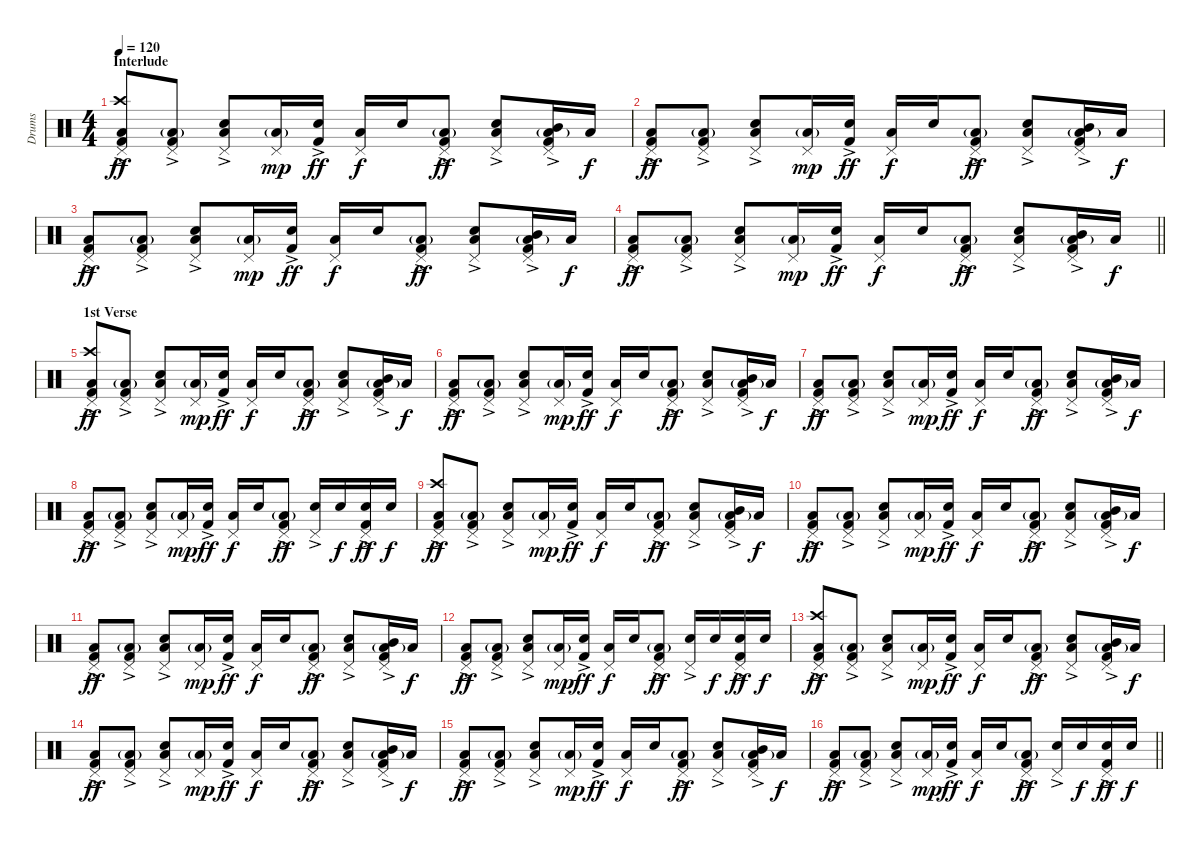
\track ("Drums" "Drums") {instrument percussion}
\staff {score}
\articulation defaults
\ts (4 4)
\section ("" "Interlude")
\tempo 120
\clef neutral
\ks c
("Pedal Hi-Hat (hit)" "Crash high (hit)" "Low Floor Tom (hit)" "Kick (hit) 2"{ac}).8{dy ff} ("Pedal Hi-Hat (hit)" "Low Floor Tom (hit)"{g} "Kick (hit) 2"{ac}).8 ("Pedal Hi-Hat (hit)" "Snare (hit) 2"{ac} "Low Floor Tom (hit)").8 ("Pedal Hi-Hat (hit)" "Low Floor Tom (hit)"{g}).16{dy mp} ("Snare (hit) 2" "Kick (hit) 2"{ac}).16{dy ff} ("Pedal Hi-Hat (hit)" "Low Floor Tom (hit)").16{dy f} "Snare (hit) 2".16 ("Pedal Hi-Hat (hit)" "Low Floor Tom (hit)"{g} "Kick (hit) 2"{ac}).8{dy ff} ("Pedal Hi-Hat (hit)" "Snare (hit) 2"{ac} "Low Floor Tom (hit)").8 ("Pedal Hi-Hat (hit)" "Mid Tom (hit)" "Low Floor Tom (hit)"{g} "Kick (hit) 2"{ac}).16 "Low Tom (hit)".16{dy f} |
("Pedal Hi-Hat (hit)" "Low Floor Tom (hit)" "Kick (hit) 2"{ac}).8{dy ff} ("Pedal Hi-Hat (hit)" "Low Floor Tom (hit)"{g} "Kick (hit) 2"{ac}).8 ("Pedal Hi-Hat (hit)" "Snare (hit) 2"{ac} "Low Floor Tom (hit)").8 ("Pedal Hi-Hat (hit)" "Low Floor Tom (hit)"{g}).16{dy mp} ("Snare (hit) 2" "Kick (hit) 2"{ac}).16{dy ff} ("Pedal Hi-Hat (hit)" "Low Floor Tom (hit)").16{dy f} "Snare (hit) 2".16 ("Pedal Hi-Hat (hit)" "Low Floor Tom (hit)"{g} "Kick (hit) 2"{ac}).8{dy ff} ("Pedal Hi-Hat (hit)" "Snare (hit) 2"{ac} "Low Floor Tom (hit)").8 ("Pedal Hi-Hat (hit)" "Mid Tom (hit)" "Low Floor Tom (hit)"{g} "Kick (hit) 2"{ac}).16 "Low Tom (hit)".16{dy f} |
("Pedal Hi-Hat (hit)" "Low Floor Tom (hit)" "Kick (hit) 2"{ac}).8{dy ff} ("Pedal Hi-Hat (hit)" "Low Floor Tom (hit)"{g} "Kick (hit) 2"{ac}).8 ("Pedal Hi-Hat (hit)" "Snare (hit) 2"{ac} "Low Floor Tom (hit)").8 ("Pedal Hi-Hat (hit)" "Low Floor Tom (hit)"{g}).16{dy mp} ("Snare (hit) 2" "Kick (hit) 2"{ac}).16{dy ff} ("Pedal Hi-Hat (hit)" "Low Floor Tom (hit)").16{dy f} "Snare (hit) 2".16 ("Pedal Hi-Hat (hit)" "Low Floor Tom (hit)"{g} "Kick (hit) 2"{ac}).8{dy ff} ("Pedal Hi-Hat (hit)" "Snare (hit) 2"{ac} "Low Floor Tom (hit)").8 ("Pedal Hi-Hat (hit)" "Mid Tom (hit)" "Low Floor Tom (hit)"{g} "Kick (hit) 2"{ac}).16 "Low Tom (hit)".16{dy f} |
\barLineRight lightlight
("Pedal Hi-Hat (hit)" "Low Floor Tom (hit)" "Kick (hit) 2"{ac}).8{dy ff} ("Pedal Hi-Hat (hit)" "Low Floor Tom (hit)"{g} "Kick (hit) 2"{ac}).8 ("Pedal Hi-Hat (hit)" "Snare (hit) 2"{ac} "Low Floor Tom (hit)").8 ("Pedal Hi-Hat (hit)" "Low Floor Tom (hit)"{g}).16{dy mp} ("Snare (hit) 2" "Kick (hit) 2"{ac}).16{dy ff} ("Pedal Hi-Hat (hit)" "Low Floor Tom (hit)").16{dy f} "Snare (hit) 2".16 ("Pedal Hi-Hat (hit)" "Low Floor Tom (hit)"{g} "Kick (hit) 2"{ac}).8{dy ff} ("Pedal Hi-Hat (hit)" "Snare (hit) 2"{ac} "Low Floor Tom (hit)").8 ("Pedal Hi-Hat (hit)" "Mid Tom (hit)" "Low Floor Tom (hit)"{g} "Kick (hit) 2"{ac}).16 "Low Tom (hit)".16{dy f} |
\section ("" "1st Verse")
("Pedal Hi-Hat (hit)" "Crash high (hit)" "Low Floor Tom (hit)" "Kick (hit) 2"{ac}).8{dy ff} ("Pedal Hi-Hat (hit)" "Low Floor Tom (hit)"{g} "Kick (hit) 2"{ac}).8 ("Pedal Hi-Hat (hit)" "Snare (hit) 2"{ac} "Low Floor Tom (hit)").8 ("Pedal Hi-Hat (hit)" "Low Floor Tom (hit)"{g}).16{dy mp} ("Snare (hit) 2" "Kick (hit) 2"{ac}).16{dy ff} ("Pedal Hi-Hat (hit)" "Low Floor Tom (hit)").16{dy f} "Snare (hit) 2".16 ("Pedal Hi-Hat (hit)" "Low Floor Tom (hit)"{g} "Kick (hit) 2"{ac}).8{dy ff} ("Pedal Hi-Hat (hit)" "Snare (hit) 2"{ac} "Low Floor Tom (hit)").8 ("Pedal Hi-Hat (hit)" "Mid Tom (hit)" "Low Floor Tom (hit)"{g} "Kick (hit) 2"{ac}).16 "Low Tom (hit)".16{dy f} |
("Pedal Hi-Hat (hit)" "Low Floor Tom (hit)" "Kick (hit) 2"{ac}).8{dy ff} ("Pedal Hi-Hat (hit)" "Low Floor Tom (hit)"{g} "Kick (hit) 2"{ac}).8 ("Pedal Hi-Hat (hit)" "Snare (hit) 2"{ac} "Low Floor Tom (hit)").8 ("Pedal Hi-Hat (hit)" "Low Floor Tom (hit)"{g}).16{dy mp} ("Snare (hit) 2" "Kick (hit) 2"{ac}).16{dy ff} ("Pedal Hi-Hat (hit)" "Low Floor Tom (hit)").16{dy f} "Snare (hit) 2".16 ("Pedal Hi-Hat (hit)" "Low Floor Tom (hit)"{g} "Kick (hit) 2"{ac}).8{dy ff} ("Pedal Hi-Hat (hit)" "Snare (hit) 2"{ac} "Low Floor Tom (hit)").8 ("Pedal Hi-Hat (hit)" "Mid Tom (hit)" "Low Floor Tom (hit)"{g} "Kick (hit) 2"{ac}).16 "Low Tom (hit)".16{dy f} |
("Pedal Hi-Hat (hit)" "Low Floor Tom (hit)" "Kick (hit) 2"{ac}).8{dy ff} ("Pedal Hi-Hat (hit)" "Low Floor Tom (hit)"{g} "Kick (hit) 2"{ac}).8 ("Pedal Hi-Hat (hit)" "Snare (hit) 2"{ac} "Low Floor Tom (hit)").8 ("Pedal Hi-Hat (hit)" "Low Floor Tom (hit)"{g}).16{dy mp} ("Snare (hit) 2" "Kick (hit) 2"{ac}).16{dy ff} ("Pedal Hi-Hat (hit)" "Low Floor Tom (hit)").16{dy f} "Snare (hit) 2".16 ("Pedal Hi-Hat (hit)" "Low Floor Tom (hit)"{g} "Kick (hit) 2"{ac}).8{dy ff} ("Pedal Hi-Hat (hit)" "Snare (hit) 2"{ac} "Low Floor Tom (hit)").8 ("Pedal Hi-Hat (hit)" "Mid Tom (hit)" "Low Floor Tom (hit)"{g} "Kick (hit) 2"{ac}).16 "Low Tom (hit)".16{dy f} |
("Pedal Hi-Hat (hit)" "Low Floor Tom (hit)" "Kick (hit) 2"{ac}).8{dy ff} ("Pedal Hi-Hat (hit)" "Low Floor Tom (hit)"{g} "Kick (hit) 2"{ac}).8 ("Pedal Hi-Hat (hit)" "Snare (hit) 2"{ac} "Low Floor Tom (hit)").8 ("Pedal Hi-Hat (hit)" "Low Floor Tom (hit)"{g}).16{dy mp} ("Snare (hit) 2" "Kick (hit) 2"{ac}).16{dy ff} ("Pedal Hi-Hat (hit)" "Low Floor Tom (hit)").16{dy f} "Snare (hit) 2".16 ("Pedal Hi-Hat (hit)" "Low Floor Tom (hit)"{g} "Kick (hit) 2"{ac}).8{dy ff} ("Pedal Hi-Hat (hit)" "Snare (hit) 2"{ac}).16 "Snare (hit) 2".16{dy f} ("Pedal Hi-Hat (hit)" "Snare (hit) 2" "Kick (hit) 2"{ac}).16{dy ff} "Snare (hit) 2".16{dy f} |
("Pedal Hi-Hat (hit)" "Crash high (hit)" "Low Floor Tom (hit)" "Kick (hit) 2"{ac}).8{dy ff} ("Pedal Hi-Hat (hit)" "Low Floor Tom (hit)"{g} "Kick (hit) 2"{ac}).8 ("Pedal Hi-Hat (hit)" "Snare (hit) 2"{ac} "Low Floor Tom (hit)").8 ("Pedal Hi-Hat (hit)" "Low Floor Tom (hit)"{g}).16{dy mp} ("Snare (hit) 2" "Kick (hit) 2"{ac}).16{dy ff} ("Pedal Hi-Hat (hit)" "Low Floor Tom (hit)").16{dy f} "Snare (hit) 2".16 ("Pedal Hi-Hat (hit)" "Low Floor Tom (hit)"{g} "Kick (hit) 2"{ac}).8{dy ff} ("Pedal Hi-Hat (hit)" "Snare (hit) 2"{ac} "Low Floor Tom (hit)").8 ("Pedal Hi-Hat (hit)" "Mid Tom (hit)" "Low Floor Tom (hit)"{g} "Kick (hit) 2"{ac}).16 "Low Tom (hit)".16{dy f} |
("Pedal Hi-Hat (hit)" "Low Floor Tom (hit)" "Kick (hit) 2"{ac}).8{dy ff} ("Pedal Hi-Hat (hit)" "Low Floor Tom (hit)"{g} "Kick (hit) 2"{ac}).8 ("Pedal Hi-Hat (hit)" "Snare (hit) 2"{ac} "Low Floor Tom (hit)").8 ("Pedal Hi-Hat (hit)" "Low Floor Tom (hit)"{g}).16{dy mp} ("Snare (hit) 2" "Kick (hit) 2"{ac}).16{dy ff} ("Pedal Hi-Hat (hit)" "Low Floor Tom (hit)").16{dy f} "Snare (hit) 2".16 ("Pedal Hi-Hat (hit)" "Low Floor Tom (hit)"{g} "Kick (hit) 2"{ac}).8{dy ff} ("Pedal Hi-Hat (hit)" "Snare (hit) 2"{ac} "Low Floor Tom (hit)").8 ("Pedal Hi-Hat (hit)" "Mid Tom (hit)" "Low Floor Tom (hit)"{g} "Kick (hit) 2"{ac}).16 "Low Tom (hit)".16{dy f} |
("Pedal Hi-Hat (hit)" "Low Floor Tom (hit)" "Kick (hit) 2"{ac}).8{dy ff} ("Pedal Hi-Hat (hit)" "Low Floor Tom (hit)"{g} "Kick (hit) 2"{ac}).8 ("Pedal Hi-Hat (hit)" "Snare (hit) 2"{ac} "Low Floor Tom (hit)").8 ("Pedal Hi-Hat (hit)" "Low Floor Tom (hit)"{g}).16{dy mp} ("Snare (hit) 2" "Kick (hit) 2"{ac}).16{dy ff} ("Pedal Hi-Hat (hit)" "Low Floor Tom (hit)").16{dy f} "Snare (hit) 2".16 ("Pedal Hi-Hat (hit)" "Low Floor Tom (hit)"{g} "Kick (hit) 2"{ac}).8{dy ff} ("Pedal Hi-Hat (hit)" "Snare (hit) 2"{ac} "Low Floor Tom (hit)").8 ("Pedal Hi-Hat (hit)" "Mid Tom (hit)" "Low Floor Tom (hit)"{g} "Kick (hit) 2"{ac}).16 "Low Tom (hit)".16{dy f} |
("Pedal Hi-Hat (hit)" "Low Floor Tom (hit)" "Kick (hit) 2"{ac}).8{dy ff} ("Pedal Hi-Hat (hit)" "Low Floor Tom (hit)"{g} "Kick (hit) 2"{ac}).8 ("Pedal Hi-Hat (hit)" "Snare (hit) 2"{ac} "Low Floor Tom (hit)").8 ("Pedal Hi-Hat (hit)" "Low Floor Tom (hit)"{g}).16{dy mp} ("Snare (hit) 2" "Kick (hit) 2"{ac}).16{dy ff} ("Pedal Hi-Hat (hit)" "Low Floor Tom (hit)").16{dy f} "Snare (hit) 2".16 ("Pedal Hi-Hat (hit)" "Low Floor Tom (hit)"{g} "Kick (hit) 2"{ac}).8{dy ff} ("Pedal Hi-Hat (hit)" "Snare (hit) 2"{ac}).16 "Snare (hit) 2".16{dy f} ("Pedal Hi-Hat (hit)" "Snare (hit) 2" "Kick (hit) 2"{ac}).16{dy ff} "Snare (hit) 2".16{dy f} |
("Pedal Hi-Hat (hit)" "Crash high (hit)" "Low Floor Tom (hit)" "Kick (hit) 2"{ac}).8{dy ff} ("Pedal Hi-Hat (hit)" "Low Floor Tom (hit)"{g} "Kick (hit) 2"{ac}).8 ("Pedal Hi-Hat (hit)" "Snare (hit) 2"{ac} "Low Floor Tom (hit)").8 ("Pedal Hi-Hat (hit)" "Low Floor Tom (hit)"{g}).16{dy mp} ("Snare (hit) 2" "Kick (hit) 2"{ac}).16{dy ff} ("Pedal Hi-Hat (hit)" "Low Floor Tom (hit)").16{dy f} "Snare (hit) 2".16 ("Pedal Hi-Hat (hit)" "Low Floor Tom (hit)"{g} "Kick (hit) 2"{ac}).8{dy ff} ("Pedal Hi-Hat (hit)" "Snare (hit) 2"{ac} "Low Floor Tom (hit)").8 ("Pedal Hi-Hat (hit)" "Mid Tom (hit)" "Low Floor Tom (hit)"{g} "Kick (hit) 2"{ac}).16 "Low Tom (hit)".16{dy f} |
("Pedal Hi-Hat (hit)" "Low Floor Tom (hit)" "Kick (hit) 2"{ac}).8{dy ff} ("Pedal Hi-Hat (hit)" "Low Floor Tom (hit)"{g} "Kick (hit) 2"{ac}).8 ("Pedal Hi-Hat (hit)" "Snare (hit) 2"{ac} "Low Floor Tom (hit)").8 ("Pedal Hi-Hat (hit)" "Low Floor Tom (hit)"{g}).16{dy mp} ("Snare (hit) 2" "Kick (hit) 2"{ac}).16{dy ff} ("Pedal Hi-Hat (hit)" "Low Floor Tom (hit)").16{dy f} "Snare (hit) 2".16 ("Pedal Hi-Hat (hit)" "Low Floor Tom (hit)"{g} "Kick (hit) 2"{ac}).8{dy ff} ("Pedal Hi-Hat (hit)" "Snare (hit) 2"{ac} "Low Floor Tom (hit)").8 ("Pedal Hi-Hat (hit)" "Mid Tom (hit)" "Low Floor Tom (hit)"{g} "Kick (hit) 2"{ac}).16 "Low Tom (hit)".16{dy f} |
("Pedal Hi-Hat (hit)" "Low Floor Tom (hit)" "Kick (hit) 2"{ac}).8{dy ff} ("Pedal Hi-Hat (hit)" "Low Floor Tom (hit)"{g} "Kick (hit) 2"{ac}).8 ("Pedal Hi-Hat (hit)" "Snare (hit) 2"{ac} "Low Floor Tom (hit)").8 ("Pedal Hi-Hat (hit)" "Low Floor Tom (hit)"{g}).16{dy mp} ("Snare (hit) 2" "Kick (hit) 2"{ac}).16{dy ff} ("Pedal Hi-Hat (hit)" "Low Floor Tom (hit)").16{dy f} "Snare (hit) 2".16 ("Pedal Hi-Hat (hit)" "Low Floor Tom (hit)"{g} "Kick (hit) 2"{ac}).8{dy ff} ("Pedal Hi-Hat (hit)" "Snare (hit) 2"{ac} "Low Floor Tom (hit)").8 ("Pedal Hi-Hat (hit)" "Mid Tom (hit)" "Low Floor Tom (hit)"{g} "Kick (hit) 2"{ac}).16 "Low Tom (hit)".16{dy f} |
\barLineRight lightlight
("Pedal Hi-Hat (hit)" "Low Floor Tom (hit)" "Kick (hit) 2"{ac}).8{dy ff} ("Pedal Hi-Hat (hit)" "Low Floor Tom (hit)"{g} "Kick (hit) 2"{ac}).8 ("Pedal Hi-Hat (hit)" "Snare (hit) 2"{ac} "Low Floor Tom (hit)").8 ("Pedal Hi-Hat (hit)" "Low Floor Tom (hit)"{g}).16{dy mp} ("Snare (hit) 2" "Kick (hit) 2"{ac}).16{dy ff} ("Pedal Hi-Hat (hit)" "Low Floor Tom (hit)").16{dy f} "Snare (hit) 2".16 ("Pedal Hi-Hat (hit)" "Low Floor Tom (hit)"{g} "Kick (hit) 2"{ac}).8{dy ff} ("Pedal Hi-Hat (hit)" "Snare (hit) 2"{ac}).16 "Snare (hit) 2".16{dy f} ("Pedal Hi-Hat (hit)" "Snare (hit) 2" "Kick (hit) 2"{ac}).16{dy ff} "Snare (hit) 2".16{dy f}
